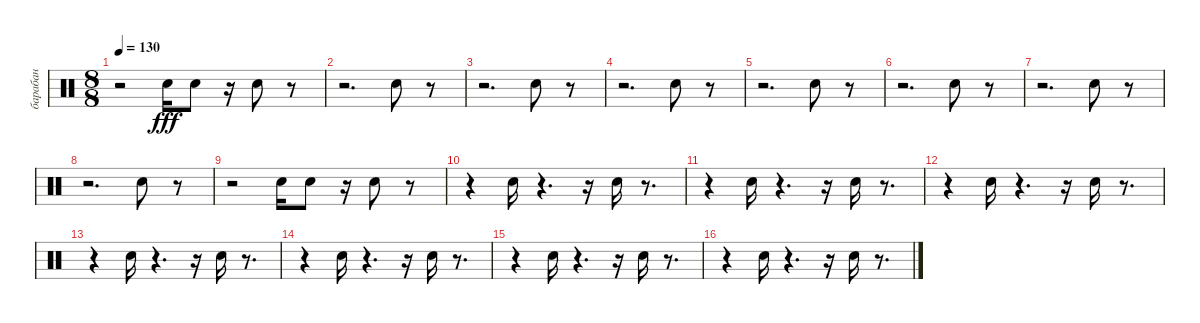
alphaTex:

\track ("барабан" "барабан") {instrument percussion}
\staff {score}
\articulation defaults
\ts (8 8)
\tempo 130
\clef neutral
\ks c
r.2{dy fff} "Snare (hit) 2".16 "Snare (hit) 2".8 r.16 "Snare (hit) 2".8 r.8 |
r.2{d} "Snare (hit) 2".8 r.8 |
r.2{d} "Snare (hit) 2".8 r.8 |
r.2{d} "Snare (hit) 2".8 r.8 |
r.2{d} "Snare (hit) 2".8 r.8 |
r.2{d} "Snare (hit) 2".8 r.8 |
r.2{d} "Snare (hit) 2".8 r.8 |
r.2{d} "Snare (hit) 2".8 r.8 |
r.2 "Snare (hit) 2".16 "Snare (hit) 2".8 r.16 "Snare (hit) 2".8 r.8 |
r.4 "Snare (hit) 2".16 r.4{d} r.16 "Snare (hit) 2".16 r.8{d} |
r.4 "Snare (hit) 2".16 r.4{d} r.16 "Snare (hit) 2".16 r.8{d} |
r.4 "Snare (hit) 2".16 r.4{d} r.16 "Snare (hit) 2".16 r.8{d} |
r.4 "Snare (hit) 2".16 r.4{d} r.16 "Snare (hit) 2".16 r.8{d} |
r.4 "Snare (hit) 2".16 r.4{d} r.16 "Snare (hit) 2".16 r.8{d} |
r.4 "Snare (hit) 2".16 r.4{d} r.16 "Snare (hit) 2".16 r.8{d} |
r.4 "Snare (hit) 2".16 r.4{d} r.16 "Snare (hit) 2".16 r.8{d}
